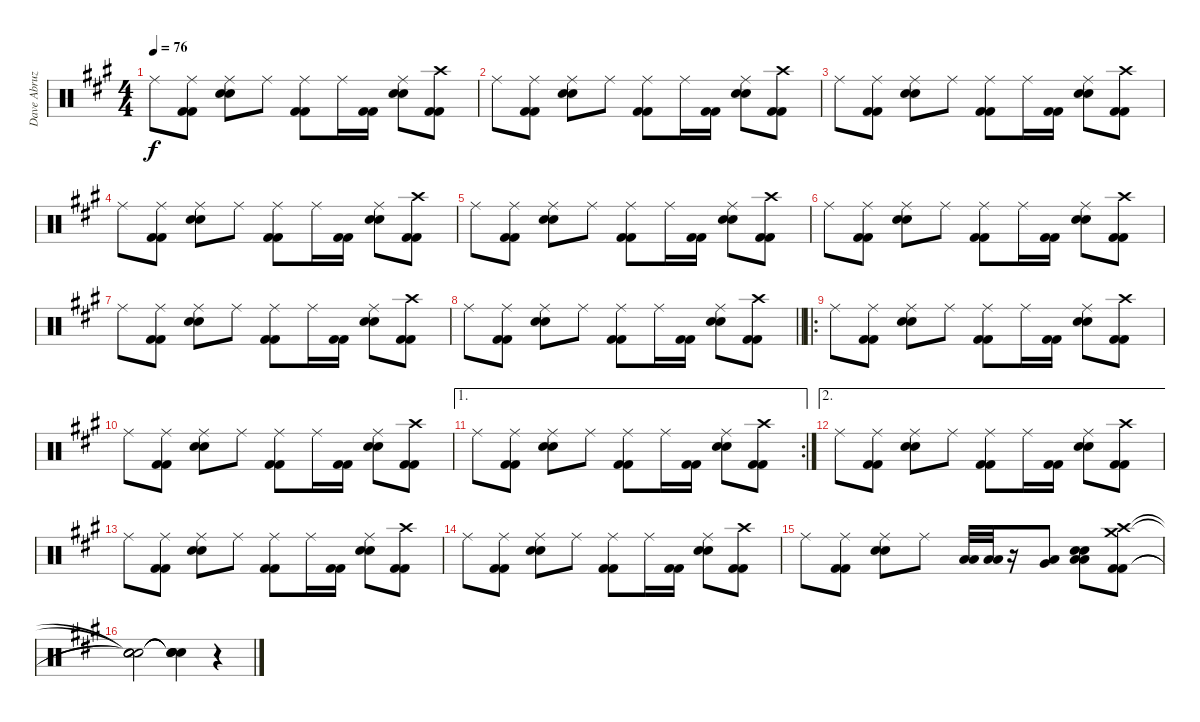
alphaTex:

\track ("Dave Abruzzese" "Dave Abruz") {instrument percussion}
\staff {score}
\articulation defaults
\ts (4 4)
\tempo 76
\clef neutral
\ks a "Ride (middle)".8{dy f}
("Kick (hit) 2" "Kick (hit) 2" "Ride (middle)").8 ("Electric Snare (hit)" "Electric Snare (hit)" "Ride (middle)").8 "Ride (middle)".8 ("Kick (hit) 2" "Kick (hit) 2" "Ride (middle)").8 "Ride (middle)".16 ("Kick (hit) 2" "Kick (hit) 2").16 ("Electric Snare (hit)" "Electric Snare (hit)" "Ride (middle)").8 ("Kick (hit) 2" "Kick (hit) 2" "Crash high (hit)").8 |
"Ride (middle)".8 ("Kick (hit) 2" "Kick (hit) 2" "Ride (middle)").8 ("Electric Snare (hit)" "Electric Snare (hit)" "Ride (middle)").8 "Ride (middle)".8 ("Kick (hit) 2" "Kick (hit) 2" "Ride (middle)").8 "Ride (middle)".16 ("Kick (hit) 2" "Kick (hit) 2").16 ("Electric Snare (hit)" "Electric Snare (hit)" "Ride (middle)").8 ("Kick (hit) 2" "Kick (hit) 2" "Crash high (hit)").8 |
"Ride (middle)".8 ("Kick (hit) 2" "Kick (hit) 2" "Ride (middle)").8 ("Electric Snare (hit)" "Electric Snare (hit)" "Ride (middle)").8 "Ride (middle)".8 ("Kick (hit) 2" "Kick (hit) 2" "Ride (middle)").8 "Ride (middle)".16 ("Kick (hit) 2" "Kick (hit) 2").16 ("Electric Snare (hit)" "Electric Snare (hit)" "Ride (middle)").8 ("Kick (hit) 2" "Kick (hit) 2" "Crash high (hit)").8 |
"Ride (middle)".8 ("Kick (hit) 2" "Kick (hit) 2" "Ride (middle)").8 ("Electric Snare (hit)" "Electric Snare (hit)" "Ride (middle)").8 "Ride (middle)".8 ("Kick (hit) 2" "Kick (hit) 2" "Ride (middle)").8 "Ride (middle)".16 ("Kick (hit) 2" "Kick (hit) 2").16 ("Electric Snare (hit)" "Electric Snare (hit)" "Ride (middle)").8 ("Kick (hit) 2" "Kick (hit) 2" "Crash high (hit)").8 |
"Ride (middle)".8 ("Kick (hit) 2" "Kick (hit) 2" "Ride (middle)").8 ("Electric Snare (hit)" "Electric Snare (hit)" "Ride (middle)").8 "Ride (middle)".8 ("Kick (hit) 2" "Kick (hit) 2" "Ride (middle)").8 "Ride (middle)".16 ("Kick (hit) 2" "Kick (hit) 2").16 ("Electric Snare (hit)" "Electric Snare (hit)" "Ride (middle)").8 ("Kick (hit) 2" "Kick (hit) 2" "Crash high (hit)").8 |
"Ride (middle)".8 ("Kick (hit) 2" "Kick (hit) 2" "Ride (middle)").8 ("Electric Snare (hit)" "Electric Snare (hit)" "Ride (middle)").8 "Ride (middle)".8 ("Kick (hit) 2" "Kick (hit) 2" "Ride (middle)").8 "Ride (middle)".16 ("Kick (hit) 2" "Kick (hit) 2").16 ("Electric Snare (hit)" "Electric Snare (hit)" "Ride (middle)").8 ("Kick (hit) 2" "Kick (hit) 2" "Crash high (hit)").8 |
"Ride (middle)".8 ("Kick (hit) 2" "Kick (hit) 2" "Ride (middle)").8 ("Electric Snare (hit)" "Electric Snare (hit)" "Ride (middle)").8 "Ride (middle)".8 ("Kick (hit) 2" "Kick (hit) 2" "Ride (middle)").8 "Ride (middle)".16 ("Kick (hit) 2" "Kick (hit) 2").16 ("Electric Snare (hit)" "Electric Snare (hit)" "Ride (middle)").8 ("Kick (hit) 2" "Kick (hit) 2" "Crash high (hit)").8 |
\barLineRight lightlight "Ride (middle)".8
("Kick (hit) 2" "Kick (hit) 2" "Ride (middle)").8 ("Electric Snare (hit)" "Electric Snare (hit)" "Ride (middle)").8 "Ride (middle)".8 ("Kick (hit) 2" "Kick (hit) 2" "Ride (middle)").8 "Ride (middle)".16 ("Kick (hit) 2" "Kick (hit) 2").16 ("Electric Snare (hit)" "Electric Snare (hit)" "Ride (middle)").8 ("Kick (hit) 2" "Kick (hit) 2" "Crash high (hit)").8 |
\ro "Ride (middle)".8
("Kick (hit) 2" "Kick (hit) 2" "Ride (middle)").8 ("Electric Snare (hit)" "Electric Snare (hit)" "Ride (middle)").8 "Ride (middle)".8 ("Kick (hit) 2" "Kick (hit) 2" "Ride (middle)").8 "Ride (middle)".16 ("Kick (hit) 2" "Kick (hit) 2").16 ("Electric Snare (hit)" "Electric Snare (hit)" "Ride (middle)").8 ("Kick (hit) 2" "Kick (hit) 2" "Crash high (hit)").8 |
"Ride (middle)".8 ("Kick (hit) 2" "Kick (hit) 2" "Ride (middle)").8 ("Electric Snare (hit)" "Electric Snare (hit)" "Ride (middle)").8 "Ride (middle)".8 ("Kick (hit) 2" "Kick (hit) 2" "Ride (middle)").8 "Ride (middle)".16 ("Kick (hit) 2" "Kick (hit) 2").16 ("Electric Snare (hit)" "Electric Snare (hit)" "Ride (middle)").8 ("Kick (hit) 2" "Kick (hit) 2" "Crash high (hit)").8 |
\ae 1
\rc 2 "Ride (middle)".8
("Kick (hit) 2" "Kick (hit) 2" "Ride (middle)").8 ("Electric Snare (hit)" "Electric Snare (hit)" "Ride (middle)").8 "Ride (middle)".8 ("Kick (hit) 2" "Kick (hit) 2" "Ride (middle)").8 "Ride (middle)".16 ("Kick (hit) 2" "Kick (hit) 2").16 ("Electric Snare (hit)" "Electric Snare (hit)" "Ride (middle)").8 ("Kick (hit) 2" "Kick (hit) 2" "Crash high (hit)").8 |
\ae 2 "Ride (middle)".8
("Kick (hit) 2" "Kick (hit) 2" "Ride (middle)").8 ("Electric Snare (hit)" "Electric Snare (hit)" "Ride (middle)").8 "Ride (middle)".8 ("Kick (hit) 2" "Kick (hit) 2" "Ride (middle)").8 "Ride (middle)".16 ("Kick (hit) 2" "Kick (hit) 2").16 ("Electric Snare (hit)" "Electric Snare (hit)" "Ride (middle)").8 ("Kick (hit) 2" "Kick (hit) 2" "Crash high (hit)").8 |
"Ride (middle)".8 ("Kick (hit) 2" "Kick (hit) 2" "Ride (middle)").8 ("Electric Snare (hit)" "Electric Snare (hit)" "Ride (middle)").8 "Ride (middle)".8 ("Kick (hit) 2" "Kick (hit) 2" "Ride (middle)").8 "Ride (middle)".16 ("Kick (hit) 2" "Kick (hit) 2").16 ("Electric Snare (hit)" "Electric Snare (hit)" "Ride (middle)").8 ("Kick (hit) 2" "Kick (hit) 2" "Crash high (hit)").8 |
"Ride (middle)".8 ("Kick (hit) 2" "Kick (hit) 2" "Ride (middle)").8 ("Electric Snare (hit)" "Electric Snare (hit)" "Ride (middle)").8 "Ride (middle)".8 ("Kick (hit) 2" "Kick (hit) 2" "Ride (middle)").8 "Ride (middle)".16 ("Kick (hit) 2" "Kick (hit) 2").16 ("Electric Snare (hit)" "Electric Snare (hit)" "Ride (middle)").8 ("Kick (hit) 2" "Kick (hit) 2" "Crash high (hit)").8 |
"Ride (middle)".8 ("Kick (hit) 2" "Kick (hit) 2" "Ride (middle)").8 ("Electric Snare (hit)" "Electric Snare (hit)" "Ride (middle)").8 "Ride (middle)".8 ("Low Tom (hit)" "Low Tom (hit)").32 ("Low Tom (hit)" "Low Tom (hit)").32 r.16 ("Very Low Tom (hit)" "Low Tom (hit)").8 ("Low Tom (hit)" "Low Tom (hit)" "Electric Snare (hit)" "Electric Snare (hit)").8 ("Crash medium (hit)" "Crash high (hit)" "Kick (hit) 2" "Kick (hit) 2").8 |
("Snare (hit)"{t} "Snare (hit)"{t} "Snare (hit)"{t} "Snare (hit)"{t}).2 ("Snare (hit)"{t} "Snare (hit)"{t} "Snare (hit)"{t} "Snare (hit)"{t}).4 r.4
